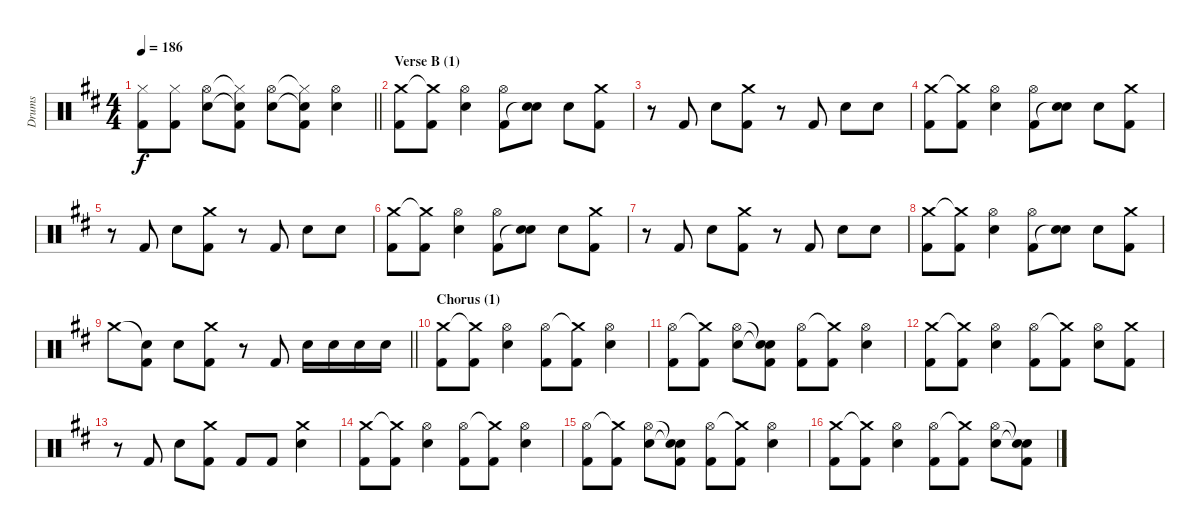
\track ("Drums" "Drums") {instrument percussion}
\staff {score}
\articulation defaults
\ts (4 4)
\tempo 186
\clef neutral
\barLineRight lightlight
\ks d
("Hi-Hat (closed)" "Kick (hit) 2").8{dy f} ("Hi-Hat (closed)" "Kick (hit) 2").8 ("Hi-Hat (open)" "Electric Snare (hit)").8 ("Hi-Hat (closed)"{t} "Snare (hit)"{t} "Kick (hit) 2").8 ("Hi-Hat (open)" "Electric Snare (hit)").8 ("Hi-Hat (closed)"{t} "Snare (hit)"{t} "Kick (hit) 2").8 ("Hi-Hat (open)" "Electric Snare (hit)").4 |
\section ("" "Verse B (1)")
("Crash medium (hit)" "Kick (hit) 2").8 ("Crash medium (hit)"{t} "Kick (hit) 2").8 ("Hi-Hat (open)" "Electric Snare (hit)").4 ("Hi-Hat (open)" "Kick (hit) 2").8 ("Electric Snare (hit)" "Snare (hit)"{t}).8 "Electric Snare (hit)".8 ("Crash medium (hit)" "Kick (hit) 2").8 |
r.8 "Kick (hit) 2".8 "Electric Snare (hit)".8 ("Crash medium (hit)" "Kick (hit) 2").8 r.8 "Kick (hit) 2".8 "Electric Snare (hit)".8 "Electric Snare (hit)".8 |
("Crash medium (hit)" "Kick (hit) 2").8 ("Crash medium (hit)"{t} "Kick (hit) 2").8 ("Hi-Hat (open)" "Electric Snare (hit)").4 ("Hi-Hat (open)" "Kick (hit) 2").8 ("Electric Snare (hit)" "Snare (hit)"{t}).8 "Electric Snare (hit)".8 ("Crash medium (hit)" "Kick (hit) 2").8 |
r.8 "Kick (hit) 2".8 "Electric Snare (hit)".8 ("Crash medium (hit)" "Kick (hit) 2").8 r.8 "Kick (hit) 2".8 "Electric Snare (hit)".8 "Electric Snare (hit)".8 |
("Crash medium (hit)" "Kick (hit) 2").8 ("Crash medium (hit)"{t} "Kick (hit) 2").8 ("Hi-Hat (open)" "Electric Snare (hit)").4 ("Hi-Hat (open)" "Kick (hit) 2").8 ("Electric Snare (hit)" "Snare (hit)"{t}).8 "Electric Snare (hit)".8 ("Crash medium (hit)" "Kick (hit) 2").8 |
r.8 "Kick (hit) 2".8 "Electric Snare (hit)".8 ("Crash medium (hit)" "Kick (hit) 2").8 r.8 "Kick (hit) 2".8 "Electric Snare (hit)".8 "Electric Snare (hit)".8 |
("Crash medium (hit)" "Kick (hit) 2").8 ("Crash medium (hit)"{t} "Kick (hit) 2").8 ("Hi-Hat (open)" "Electric Snare (hit)").4 ("Hi-Hat (open)" "Kick (hit) 2").8 ("Electric Snare (hit)" "Snare (hit)"{t}).8 "Electric Snare (hit)".8 ("Crash medium (hit)" "Kick (hit) 2").8 |
\barLineRight lightlight "Crash medium (hit)".8
("Snare (hit)"{t} "Kick (hit) 2").8 "Electric Snare (hit)".8 ("Crash medium (hit)" "Kick (hit) 2").8 r.8 "Kick (hit) 2".8 "Electric Snare (hit)".16 "Electric Snare (hit)".16 "Electric Snare (hit)".16 "Electric Snare (hit)".16 |
\section ("" "Chorus (1)")
("Crash medium (hit)" "Kick (hit) 2").8 ("Crash medium (hit)"{t} "Kick (hit) 2").8 ("Hi-Hat (open)" "Electric Snare (hit)").4 ("Hi-Hat (open)" "Kick (hit) 2").8 ("Crash medium (hit)"{t} "Kick (hit) 2").8 ("Hi-Hat (open)" "Electric Snare (hit)").4 |
("Hi-Hat (open)" "Kick (hit) 2").8 ("Crash medium (hit)"{t} "Kick (hit) 2").8 ("Hi-Hat (open)" "Electric Snare (hit)").8 ("Snare (hit)"{t} "Snare (hit)"{t} "Kick (hit) 2").8 ("Hi-Hat (open)" "Kick (hit) 2").8 ("Crash medium (hit)"{t} "Kick (hit) 2").8 ("Hi-Hat (open)" "Electric Snare (hit)").4 |
("Crash medium (hit)" "Kick (hit) 2").8 ("Crash medium (hit)"{t} "Kick (hit) 2").8 ("Hi-Hat (open)" "Electric Snare (hit)").4 ("Hi-Hat (open)" "Kick (hit) 2").8 ("Crash medium (hit)"{t} "Kick (hit) 2").8 ("Hi-Hat (open)" "Electric Snare (hit)").8 ("Crash medium (hit)" "Kick (hit) 2").8 |
r.8 "Kick (hit) 2".8 "Electric Snare (hit)".8 ("Crash medium (hit)" "Kick (hit) 2").8 "Kick (hit) 2".8 "Kick (hit) 2".8 ("Crash medium (hit)" "Electric Snare (hit)").4 |
("Crash medium (hit)" "Kick (hit) 2").8 ("Crash medium (hit)"{t} "Kick (hit) 2").8 ("Hi-Hat (open)" "Electric Snare (hit)").4 ("Hi-Hat (open)" "Kick (hit) 2").8 ("Crash medium (hit)"{t} "Kick (hit) 2").8 ("Hi-Hat (open)" "Electric Snare (hit)").4 |
("Hi-Hat (open)" "Kick (hit) 2").8 ("Crash medium (hit)"{t} "Kick (hit) 2").8 ("Hi-Hat (open)" "Electric Snare (hit)").8 ("Snare (hit)"{t} "Snare (hit)"{t} "Kick (hit) 2").8 ("Hi-Hat (open)" "Kick (hit) 2").8 ("Crash medium (hit)"{t} "Kick (hit) 2").8 ("Hi-Hat (open)" "Electric Snare (hit)").4 |
("Crash medium (hit)" "Kick (hit) 2").8 ("Crash medium (hit)"{t} "Kick (hit) 2").8 ("Hi-Hat (open)" "Electric Snare (hit)").4 ("Hi-Hat (open)" "Kick (hit) 2").8 ("Crash medium (hit)"{t} "Kick (hit) 2").8 ("Hi-Hat (open)" "Electric Snare (hit)").8 ("Snare (hit)"{t} "Snare (hit)"{t} "Kick (hit) 2").8
